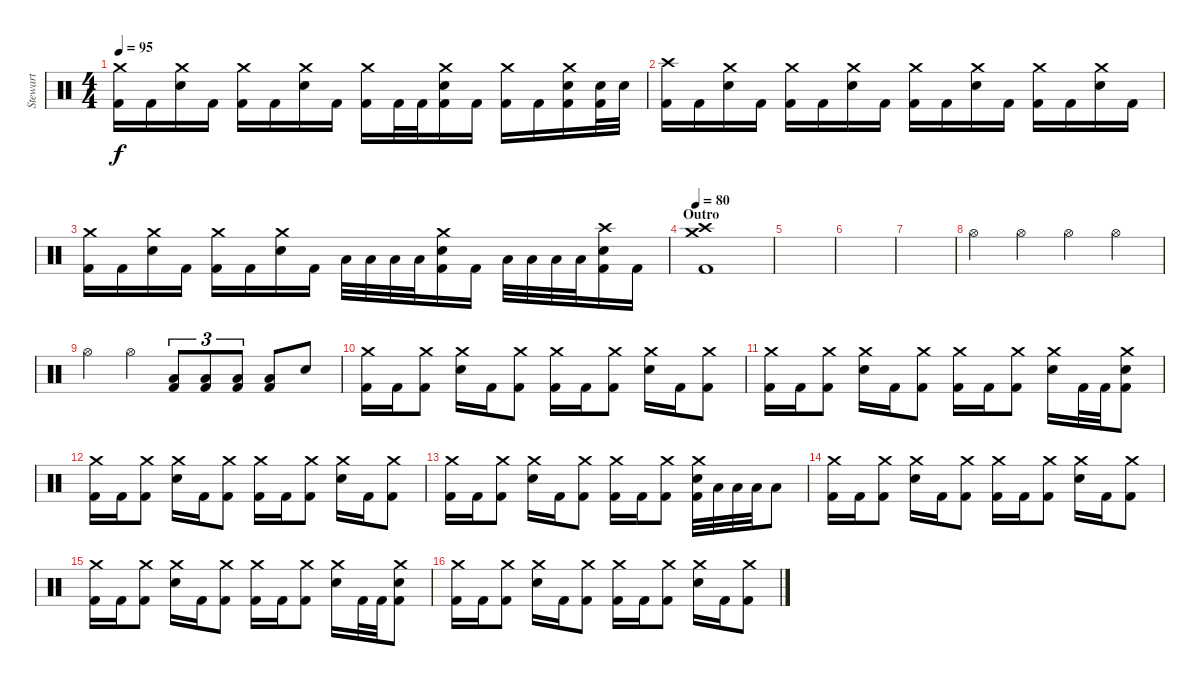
\track ("Stewart" "Stewart") {instrument percussion}
\staff {score}
\articulation defaults
\ts (4 4)
\tempo 95
\clef neutral
\ks c
("Crash medium (hit)" "Kick (hit) 2").16{dy f} "Kick (hit) 2".16 ("Crash medium (hit)" "Snare (hit) 2").16 "Kick (hit) 2".16 ("Crash medium (hit)" "Kick (hit) 2").16 "Kick (hit) 2".16 ("Crash medium (hit)" "Snare (hit) 2").16 "Kick (hit) 2".16 ("Crash medium (hit)" "Kick (hit) 2").16 "Kick (hit) 2".32 "Kick (hit) 2".32 ("Crash medium (hit)" "Snare (hit) 2" "Kick (hit) 2").16 "Kick (hit) 2".16 ("Crash medium (hit)" "Kick (hit) 2").16 "Kick (hit) 2".16 ("Crash medium (hit)" "Snare (hit) 2" "Kick (hit) 2").16 ("Snare (hit) 2" "Kick (hit) 2").32 "Snare (hit) 2".32 |
("Crash high (hit)" "Kick (hit) 2").16 "Kick (hit) 2".16 ("Crash medium (hit)" "Snare (hit) 2").16 "Kick (hit) 2".16 ("Crash medium (hit)" "Kick (hit) 2").16 "Kick (hit) 2".16 ("Crash medium (hit)" "Snare (hit) 2").16 "Kick (hit) 2".16 ("Crash medium (hit)" "Kick (hit) 2").16 "Kick (hit) 2".16 ("Crash medium (hit)" "Snare (hit) 2").16 "Kick (hit) 2".16 ("Crash medium (hit)" "Kick (hit) 2").16 "Kick (hit) 2".16 ("Crash medium (hit)" "Snare (hit) 2").16 "Kick (hit) 2".16 |
("Crash medium (hit)" "Kick (hit) 2").16 "Kick (hit) 2".16 ("Crash medium (hit)" "Snare (hit) 2").16 "Kick (hit) 2".16 ("Crash medium (hit)" "Kick (hit) 2").16 "Kick (hit) 2".16 ("Crash medium (hit)" "Snare (hit) 2").16 "Kick (hit) 2".16 "Low Tom (hit)".32 "Low Tom (hit)".32 "Low Tom (hit)".32 "Low Tom (hit)".32 ("Crash medium (hit)" "Snare (hit) 2" "Kick (hit) 2").16 "Kick (hit) 2".16 "Low Tom (hit)".32 "Low Tom (hit)".32 "Low Tom (hit)".32 "Low Tom (hit)".32 ("Crash high (hit)" "Snare (hit) 2" "Kick (hit) 2").16 "Kick (hit) 2".16 |
\section ("" "Outro")
\tempo 80
("Crash medium (hit)" "Crash high (hit)" "Kick (hit) 2").1 |
|
|
|
"Hi-Hat (open)".4 "Hi-Hat (open)".4 "Hi-Hat (open)".4 "Hi-Hat (open)".4 |
"Hi-Hat (open)".4 "Hi-Hat (open)".4 ("Low Floor Tom (hit)" "Kick (hit) 2").8{tu (3 2)} ("Low Floor Tom (hit)" "Kick (hit) 2").8{tu (3 2)} ("Low Floor Tom (hit)" "Kick (hit) 2").8{tu (3 2)} ("Low Floor Tom (hit)" "Kick (hit) 2").8 "Electric Snare (hit)".8 |
("Crash medium (hit)" "Kick (hit) 2").16 "Kick (hit) 2".16 ("Crash medium (hit)" "Kick (hit) 2").8 ("Crash medium (hit)" "Snare (hit) 2").16 "Kick (hit) 2".16 ("Crash medium (hit)" "Kick (hit) 2").8 ("Crash medium (hit)" "Kick (hit) 2").16 "Kick (hit) 2".16 ("Crash medium (hit)" "Kick (hit) 2").8 ("Crash medium (hit)" "Snare (hit) 2").16 "Kick (hit) 2".16 ("Crash medium (hit)" "Kick (hit) 2").8 |
("Crash medium (hit)" "Kick (hit) 2").16 "Kick (hit) 2".16 ("Crash medium (hit)" "Kick (hit) 2").8 ("Crash medium (hit)" "Snare (hit) 2").16 "Kick (hit) 2".16 ("Crash medium (hit)" "Kick (hit) 2").8 ("Crash medium (hit)" "Kick (hit) 2").16 "Kick (hit) 2".16 ("Crash medium (hit)" "Kick (hit) 2").8 ("Crash medium (hit)" "Snare (hit) 2").16 "Kick (hit) 2".32 "Kick (hit) 2".32 ("Crash medium (hit)" "Snare (hit) 2" "Kick (hit) 2").8 |
("Crash medium (hit)" "Kick (hit) 2").16 "Kick (hit) 2".16 ("Crash medium (hit)" "Kick (hit) 2").8 ("Crash medium (hit)" "Snare (hit) 2").16 "Kick (hit) 2".16 ("Crash medium (hit)" "Kick (hit) 2").8 ("Crash medium (hit)" "Kick (hit) 2").16 "Kick (hit) 2".16 ("Crash medium (hit)" "Kick (hit) 2").8 ("Crash medium (hit)" "Snare (hit) 2").16 "Kick (hit) 2".16 ("Crash medium (hit)" "Kick (hit) 2").8 |
("Crash medium (hit)" "Kick (hit) 2").16 "Kick (hit) 2".16 ("Crash medium (hit)" "Kick (hit) 2").8 ("Crash medium (hit)" "Snare (hit) 2").16 "Kick (hit) 2".16 ("Crash medium (hit)" "Kick (hit) 2").8 ("Crash medium (hit)" "Kick (hit) 2").16 "Kick (hit) 2".16 ("Crash medium (hit)" "Kick (hit) 2").8 ("Crash medium (hit)" "Snare (hit) 2" "Kick (hit) 2").32 "Low Tom (hit)".32 "Low Tom (hit)".32 "Low Tom (hit)".32 "Low Tom (hit)".8 |
("Crash medium (hit)" "Kick (hit) 2").16 "Kick (hit) 2".16 ("Crash medium (hit)" "Kick (hit) 2").8 ("Crash medium (hit)" "Snare (hit) 2").16 "Kick (hit) 2".16 ("Crash medium (hit)" "Kick (hit) 2").8 ("Crash medium (hit)" "Kick (hit) 2").16 "Kick (hit) 2".16 ("Crash medium (hit)" "Kick (hit) 2").8 ("Crash medium (hit)" "Snare (hit) 2").16 "Kick (hit) 2".16 ("Crash medium (hit)" "Kick (hit) 2").8 |
("Crash medium (hit)" "Kick (hit) 2").16 "Kick (hit) 2".16 ("Crash medium (hit)" "Kick (hit) 2").8 ("Crash medium (hit)" "Snare (hit) 2").16 "Kick (hit) 2".16 ("Crash medium (hit)" "Kick (hit) 2").8 ("Crash medium (hit)" "Kick (hit) 2").16 "Kick (hit) 2".16 ("Crash medium (hit)" "Kick (hit) 2").8 ("Crash medium (hit)" "Snare (hit) 2").16 "Kick (hit) 2".32 "Kick (hit) 2".32 ("Crash medium (hit)" "Snare (hit) 2" "Kick (hit) 2").8 |
("Crash medium (hit)" "Kick (hit) 2").16 "Kick (hit) 2".16 ("Crash medium (hit)" "Kick (hit) 2").8 ("Crash medium (hit)" "Snare (hit) 2").16 "Kick (hit) 2".16 ("Crash medium (hit)" "Kick (hit) 2").8 ("Crash medium (hit)" "Kick (hit) 2").16 "Kick (hit) 2".16 ("Crash medium (hit)" "Kick (hit) 2").8 ("Crash medium (hit)" "Snare (hit) 2").16 "Kick (hit) 2".16 ("Crash medium (hit)" "Kick (hit) 2").8
